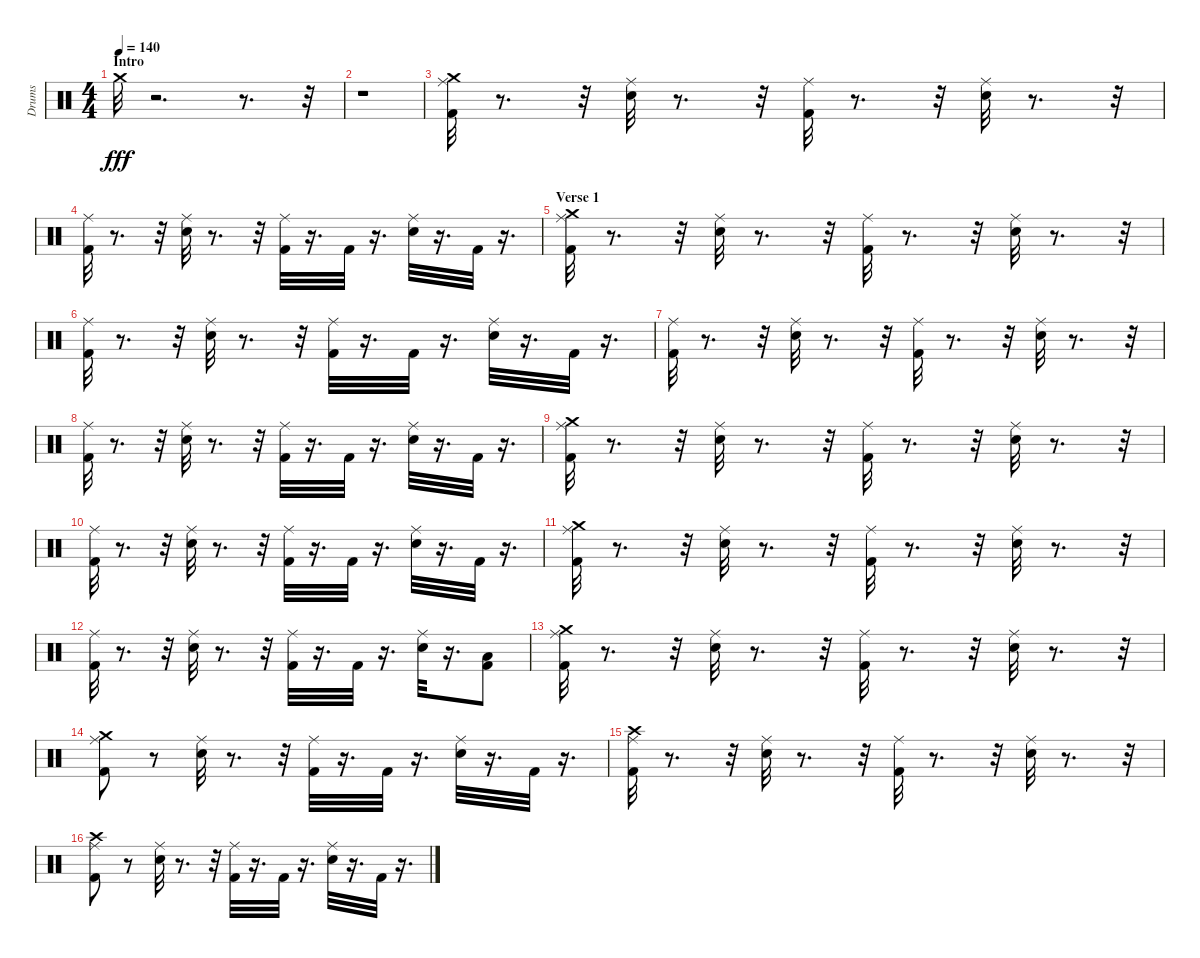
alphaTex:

\track ("Drums" "Drums") {instrument percussion}
\staff {score}
\articulation defaults
\ts (4 4)
\section ("" "Intro")
\tempo 140
\clef neutral
\ks c "Crash medium (hit)".32{dy fff}
r.2{d} r.8{d} r.32 |
r.1 |
("Crash medium (hit)" "Kick (hit) 2" "Ride (middle)").32 r.8{d} r.32 ("Ride (middle)" "Snare (hit) 2").32 r.8{d} r.32 ("Kick (hit) 2" "Ride (middle)").32 r.8{d} r.32 ("Ride (middle)" "Snare (hit) 2").32 r.8{d} r.32 |
("Kick (hit) 2" "Ride (middle)").32 r.8{d} r.32 ("Ride (middle)" "Snare (hit) 2").32 r.8{d} r.32 ("Kick (hit) 2" "Ride (middle)").32 r.16{d} "Kick (hit) 2".32 r.16{d} ("Ride (middle)" "Snare (hit) 2").32 r.16{d} "Kick (hit) 2".32 r.16{d} |
\section ("" "Verse 1")
("Crash medium (hit)" "Kick (hit) 2" "Ride (middle)").32 r.8{d} r.32 ("Ride (middle)" "Snare (hit) 2").32 r.8{d} r.32 ("Kick (hit) 2" "Ride (middle)").32 r.8{d} r.32 ("Ride (middle)" "Snare (hit) 2").32 r.8{d} r.32 |
("Kick (hit) 2" "Ride (middle)").32 r.8{d} r.32 ("Ride (middle)" "Snare (hit) 2").32 r.8{d} r.32 ("Kick (hit) 2" "Ride (middle)").32 r.16{d} "Kick (hit) 2".32 r.16{d} ("Ride (middle)" "Snare (hit) 2").32 r.16{d} "Kick (hit) 2".32 r.16{d} |
("Kick (hit) 2" "Ride (middle)").32 r.8{d} r.32 ("Ride (middle)" "Snare (hit) 2").32 r.8{d} r.32 ("Kick (hit) 2" "Ride (middle)").32 r.8{d} r.32 ("Ride (middle)" "Snare (hit) 2").32 r.8{d} r.32 |
("Kick (hit) 2" "Ride (middle)").32 r.8{d} r.32 ("Ride (middle)" "Snare (hit) 2").32 r.8{d} r.32 ("Kick (hit) 2" "Ride (middle)").32 r.16{d} "Kick (hit) 2".32 r.16{d} ("Ride (middle)" "Snare (hit) 2").32 r.16{d} "Kick (hit) 2".32 r.16{d} |
("Crash medium (hit)" "Kick (hit) 2" "Ride (middle)").32 r.8{d} r.32 ("Ride (middle)" "Snare (hit) 2").32 r.8{d} r.32 ("Kick (hit) 2" "Ride (middle)").32 r.8{d} r.32 ("Ride (middle)" "Snare (hit) 2").32 r.8{d} r.32 |
("Kick (hit) 2" "Ride (middle)").32 r.8{d} r.32 ("Ride (middle)" "Snare (hit) 2").32 r.8{d} r.32 ("Kick (hit) 2" "Ride (middle)").32 r.16{d} "Kick (hit) 2".32 r.16{d} ("Ride (middle)" "Snare (hit) 2").32 r.16{d} "Kick (hit) 2".32 r.16{d} |
("Crash medium (hit)" "Kick (hit) 2" "Ride (middle)").32 r.8{d} r.32 ("Ride (middle)" "Snare (hit) 2").32 r.8{d} r.32 ("Kick (hit) 2" "Ride (middle)").32 r.8{d} r.32 ("Ride (middle)" "Snare (hit) 2").32 r.8{d} r.32 |
("Kick (hit) 2" "Ride (middle)").32 r.8{d} r.32 ("Ride (middle)" "Snare (hit) 2").32 r.8{d} r.32 ("Kick (hit) 2" "Ride (middle)").32 r.16{d} "Kick (hit) 2".32 r.16{d} ("Ride (middle)" "Snare (hit) 2").32 r.16{d} ("Low Tom (hit)" "Kick (hit) 2").8 |
("Crash medium (hit)" "Kick (hit) 2" "Ride (middle)").32 r.8{d} r.32 ("Ride (middle)" "Snare (hit) 2").32 r.8{d} r.32 ("Kick (hit) 2" "Ride (middle)").32 r.8{d} r.32 ("Ride (middle)" "Snare (hit) 2").32 r.8{d} r.32 |
("Crash medium (hit)" "Kick (hit) 2" "Ride (middle)").8 r.8 ("Ride (middle)" "Snare (hit) 2").32 r.8{d} r.32 ("Kick (hit) 2" "Ride (middle)").32 r.16{d} "Kick (hit) 2".32 r.16{d} ("Ride (middle)" "Snare (hit) 2").32 r.16{d} "Kick (hit) 2".32 r.16{d} |
("Crash high (hit)" "Kick (hit) 2" "Ride (middle)").32 r.8{d} r.32 ("Ride (middle)" "Snare (hit) 2").32 r.8{d} r.32 ("Kick (hit) 2" "Ride (middle)").32 r.8{d} r.32 ("Ride (middle)" "Snare (hit) 2").32 r.8{d} r.32 |
("Crash high (hit)" "Kick (hit) 2" "Ride (middle)").8 r.8 ("Ride (middle)" "Snare (hit) 2").32 r.8{d} r.32 ("Kick (hit) 2" "Ride (middle)").32 r.16{d} "Kick (hit) 2".32 r.16{d} ("Ride (middle)" "Snare (hit) 2").32 r.16{d} "Kick (hit) 2".32 r.16{d}
